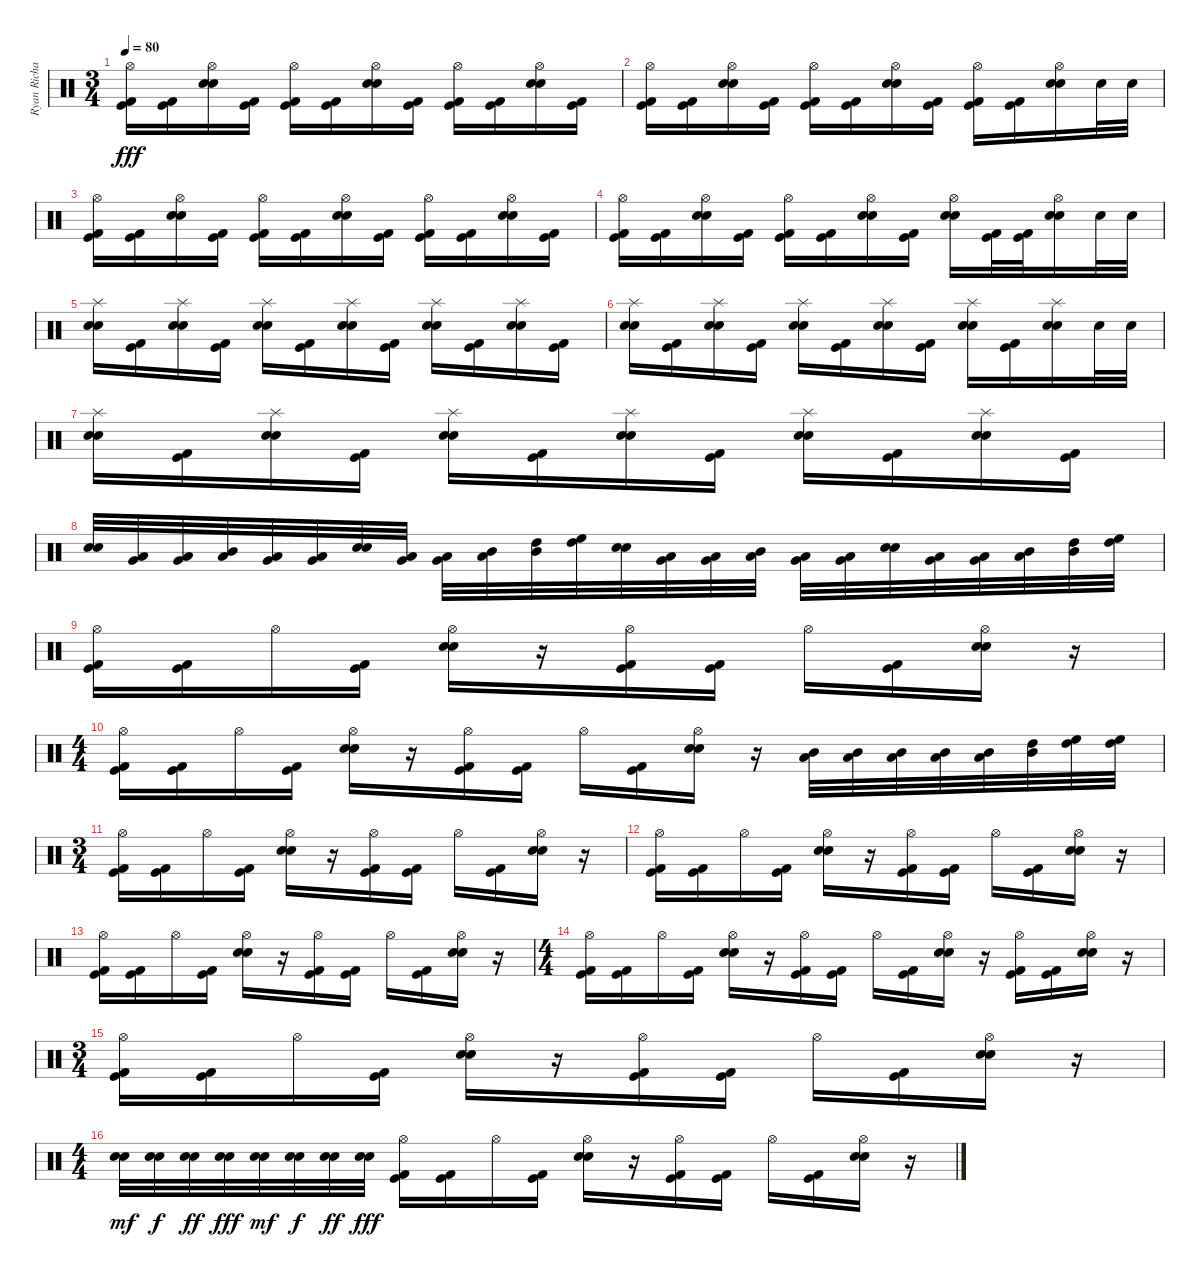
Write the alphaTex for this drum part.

\track ("Ryan Richards" "Ryan Richa") {instrument percussion}
\staff {score}
\articulation defaults
\ts (3 4)
\tempo 80
\clef neutral
\ks c
("Kick (hit)" "Hi-Hat (open)" "Kick (hit) 2").16{dy fff} ("Kick (hit)" "Kick (hit) 2").16 ("Hi-Hat (open)" "Snare (hit) 2" "Electric Snare (hit)").16 ("Kick (hit)" "Kick (hit) 2").16 ("Kick (hit)" "Hi-Hat (open)" "Kick (hit) 2").16 ("Kick (hit)" "Kick (hit) 2").16 ("Hi-Hat (open)" "Snare (hit) 2" "Electric Snare (hit)").16 ("Kick (hit)" "Kick (hit) 2").16 ("Kick (hit)" "Hi-Hat (open)" "Kick (hit) 2").16 ("Kick (hit)" "Kick (hit) 2").16 ("Hi-Hat (open)" "Snare (hit) 2" "Electric Snare (hit)").16 ("Kick (hit)" "Kick (hit) 2").16 |
("Kick (hit)" "Hi-Hat (open)" "Kick (hit) 2").16 ("Kick (hit)" "Kick (hit) 2").16 ("Hi-Hat (open)" "Snare (hit) 2" "Electric Snare (hit)").16 ("Kick (hit)" "Kick (hit) 2").16 ("Kick (hit)" "Hi-Hat (open)" "Kick (hit) 2").16 ("Kick (hit)" "Kick (hit) 2").16 ("Hi-Hat (open)" "Snare (hit) 2" "Electric Snare (hit)").16 ("Kick (hit)" "Kick (hit) 2").16 ("Kick (hit)" "Hi-Hat (open)" "Kick (hit) 2").16 ("Kick (hit)" "Kick (hit) 2").16 ("Hi-Hat (open)" "Snare (hit) 2" "Electric Snare (hit)").16 "Electric Snare (hit)".32 "Electric Snare (hit)".32 |
("Kick (hit)" "Hi-Hat (open)" "Kick (hit) 2").16 ("Kick (hit)" "Kick (hit) 2").16 ("Hi-Hat (open)" "Snare (hit) 2" "Electric Snare (hit)").16 ("Kick (hit)" "Kick (hit) 2").16 ("Kick (hit)" "Hi-Hat (open)" "Kick (hit) 2").16 ("Kick (hit)" "Kick (hit) 2").16 ("Hi-Hat (open)" "Snare (hit) 2" "Electric Snare (hit)").16 ("Kick (hit)" "Kick (hit) 2").16 ("Kick (hit)" "Hi-Hat (open)" "Kick (hit) 2").16 ("Kick (hit)" "Kick (hit) 2").16 ("Hi-Hat (open)" "Snare (hit) 2" "Electric Snare (hit)").16 ("Kick (hit)" "Kick (hit) 2").16 |
("Kick (hit)" "Hi-Hat (open)" "Kick (hit) 2").16 ("Kick (hit)" "Kick (hit) 2").16 ("Hi-Hat (open)" "Snare (hit) 2" "Electric Snare (hit)").16 ("Kick (hit)" "Kick (hit) 2").16 ("Kick (hit)" "Hi-Hat (open)" "Kick (hit) 2").16 ("Kick (hit)" "Kick (hit) 2").16 ("Hi-Hat (open)" "Snare (hit) 2" "Electric Snare (hit)").16 ("Kick (hit)" "Kick (hit) 2").16 ("Hi-Hat (open)" "Snare (hit) 2" "Electric Snare (hit)").16 ("Kick (hit)" "Kick (hit) 2").32 ("Kick (hit)" "Kick (hit) 2").32 ("Hi-Hat (open)" "Snare (hit) 2" "Electric Snare (hit)").16 "Electric Snare (hit)".32 "Electric Snare (hit)".32 |
("Splash (hit)" "Snare (hit) 2" "Electric Snare (hit)").16 ("Kick (hit)" "Kick (hit) 2").16 ("Splash (hit)" "Snare (hit) 2" "Electric Snare (hit)").16 ("Kick (hit)" "Kick (hit) 2").16 ("Splash (hit)" "Snare (hit) 2" "Electric Snare (hit)").16 ("Kick (hit)" "Kick (hit) 2").16 ("Splash (hit)" "Snare (hit) 2" "Electric Snare (hit)").16 ("Kick (hit)" "Kick (hit) 2").16 ("Splash (hit)" "Snare (hit) 2" "Electric Snare (hit)").16 ("Kick (hit)" "Kick (hit) 2").16 ("Splash (hit)" "Snare (hit) 2" "Electric Snare (hit)").16 ("Kick (hit)" "Kick (hit) 2").16 |
("Splash (hit)" "Snare (hit) 2" "Electric Snare (hit)").16 ("Kick (hit)" "Kick (hit) 2").16 ("Splash (hit)" "Snare (hit) 2" "Electric Snare (hit)").16 ("Kick (hit)" "Kick (hit) 2").16 ("Splash (hit)" "Snare (hit) 2" "Electric Snare (hit)").16 ("Kick (hit)" "Kick (hit) 2").16 ("Splash (hit)" "Snare (hit) 2" "Electric Snare (hit)").16 ("Kick (hit)" "Kick (hit) 2").16 ("Splash (hit)" "Snare (hit) 2" "Electric Snare (hit)").16 ("Kick (hit)" "Kick (hit) 2").16 ("Splash (hit)" "Snare (hit) 2" "Electric Snare (hit)").16 "Electric Snare (hit)".32 "Electric Snare (hit)".32 |
("Splash (hit)" "Snare (hit) 2" "Electric Snare (hit)").16 ("Kick (hit)" "Kick (hit) 2").16 ("Splash (hit)" "Snare (hit) 2" "Electric Snare (hit)").16 ("Kick (hit)" "Kick (hit) 2").16 ("Splash (hit)" "Snare (hit) 2" "Electric Snare (hit)").16 ("Kick (hit)" "Kick (hit) 2").16 ("Splash (hit)" "Snare (hit) 2" "Electric Snare (hit)").16 ("Kick (hit)" "Kick (hit) 2").16 ("Splash (hit)" "Snare (hit) 2" "Electric Snare (hit)").16 ("Kick (hit)" "Kick (hit) 2").16 ("Splash (hit)" "Snare (hit) 2" "Electric Snare (hit)").16 ("Kick (hit)" "Kick (hit) 2").16 |
("Snare (hit) 2" "Electric Snare (hit)").32 ("Very Low Tom (hit)" "Low Floor Tom (hit)").32 ("Low Tom (hit)" "Very Low Tom (hit)").32 ("Mid Tom (hit)" "Low Tom (hit)").32 ("Low Tom (hit)" "Very Low Tom (hit)").32 ("Very Low Tom (hit)" "Low Floor Tom (hit)").32 ("Snare (hit) 2" "Electric Snare (hit)").32 ("Very Low Tom (hit)" "Low Floor Tom (hit)").32 ("Low Tom (hit)" "Very Low Tom (hit)").32 ("Mid Tom (hit)" "Low Tom (hit)").32 ("High Tom (hit)" "Mid Tom (hit)").32 ("High Floor Tom (hit)" "High Tom (hit)").32 ("Snare (hit) 2" "Electric Snare (hit)").32 ("Very Low Tom (hit)" "Low Floor Tom (hit)").32 ("Low Tom (hit)" "Very Low Tom (hit)").32 ("Mid Tom (hit)" "Low Tom (hit)").32 ("Low Tom (hit)" "Very Low Tom (hit)").32 ("Very Low Tom (hit)" "Low Floor Tom (hit)").32 ("Snare (hit) 2" "Electric Snare (hit)").32 ("Very Low Tom (hit)" "Low Floor Tom (hit)").32 ("Low Tom (hit)" "Very Low Tom (hit)").32 ("Mid Tom (hit)" "Low Tom (hit)").32 ("High Tom (hit)" "Mid Tom (hit)").32 ("High Floor Tom (hit)" "High Tom (hit)").32 |
("Kick (hit)" "Hi-Hat (open)" "Kick (hit) 2").16 ("Kick (hit)" "Kick (hit) 2").16 "Hi-Hat (open)".16 ("Kick (hit)" "Kick (hit) 2").16 ("Hi-Hat (open)" "Snare (hit) 2" "Electric Snare (hit)").16 r.16 ("Kick (hit)" "Hi-Hat (open)" "Kick (hit) 2").16 ("Kick (hit)" "Kick (hit) 2").16 "Hi-Hat (open)".16 ("Kick (hit)" "Kick (hit) 2").16 ("Hi-Hat (open)" "Snare (hit) 2" "Electric Snare (hit)").16 r.16 |
\ts (4 4)
("Kick (hit)" "Hi-Hat (open)" "Kick (hit) 2").16 ("Kick (hit)" "Kick (hit) 2").16 "Hi-Hat (open)".16 ("Kick (hit)" "Kick (hit) 2").16 ("Hi-Hat (open)" "Snare (hit) 2" "Electric Snare (hit)").16 r.16 ("Kick (hit)" "Hi-Hat (open)" "Kick (hit) 2").16 ("Kick (hit)" "Kick (hit) 2").16 "Hi-Hat (open)".16 ("Kick (hit)" "Kick (hit) 2").16 ("Hi-Hat (open)" "Snare (hit) 2" "Electric Snare (hit)").16 r.16 ("Mid Tom (hit)" "Low Tom (hit)").32 ("Mid Tom (hit)" "Low Tom (hit)").32 ("Mid Tom (hit)" "Low Tom (hit)").32 ("Mid Tom (hit)" "Low Tom (hit)").32 ("Mid Tom (hit)" "Low Tom (hit)").32 ("High Tom (hit)" "Mid Tom (hit)").32 ("High Floor Tom (hit)" "High Tom (hit)").32 ("High Floor Tom (hit)" "High Tom (hit)").32 |
\ts (3 4)
("Kick (hit)" "Hi-Hat (open)" "Kick (hit) 2").16 ("Kick (hit)" "Kick (hit) 2").16 "Hi-Hat (open)".16 ("Kick (hit)" "Kick (hit) 2").16 ("Hi-Hat (open)" "Snare (hit) 2" "Electric Snare (hit)").16 r.16 ("Kick (hit)" "Hi-Hat (open)" "Kick (hit) 2").16 ("Kick (hit)" "Kick (hit) 2").16 "Hi-Hat (open)".16 ("Kick (hit)" "Kick (hit) 2").16 ("Hi-Hat (open)" "Snare (hit) 2" "Electric Snare (hit)").16 r.16 |
("Kick (hit)" "Hi-Hat (open)" "Kick (hit) 2").16 ("Kick (hit)" "Kick (hit) 2").16 "Hi-Hat (open)".16 ("Kick (hit)" "Kick (hit) 2").16 ("Hi-Hat (open)" "Snare (hit) 2" "Electric Snare (hit)").16 r.16 ("Kick (hit)" "Hi-Hat (open)" "Kick (hit) 2").16 ("Kick (hit)" "Kick (hit) 2").16 "Hi-Hat (open)".16 ("Kick (hit)" "Kick (hit) 2").16 ("Hi-Hat (open)" "Snare (hit) 2" "Electric Snare (hit)").16 r.16 |
("Kick (hit)" "Hi-Hat (open)" "Kick (hit) 2").16 ("Kick (hit)" "Kick (hit) 2").16 "Hi-Hat (open)".16 ("Kick (hit)" "Kick (hit) 2").16 ("Hi-Hat (open)" "Snare (hit) 2" "Electric Snare (hit)").16 r.16 ("Kick (hit)" "Hi-Hat (open)" "Kick (hit) 2").16 ("Kick (hit)" "Kick (hit) 2").16 "Hi-Hat (open)".16 ("Kick (hit)" "Kick (hit) 2").16 ("Hi-Hat (open)" "Snare (hit) 2" "Electric Snare (hit)").16 r.16 |
\ts (4 4)
("Kick (hit)" "Hi-Hat (open)" "Kick (hit) 2").16 ("Kick (hit)" "Kick (hit) 2").16 "Hi-Hat (open)".16 ("Kick (hit)" "Kick (hit) 2").16 ("Hi-Hat (open)" "Snare (hit) 2" "Electric Snare (hit)").16 r.16 ("Kick (hit)" "Hi-Hat (open)" "Kick (hit) 2").16 ("Kick (hit)" "Kick (hit) 2").16 "Hi-Hat (open)".16 ("Kick (hit)" "Kick (hit) 2").16 ("Hi-Hat (open)" "Snare (hit) 2" "Electric Snare (hit)").16 r.16 ("Kick (hit)" "Hi-Hat (open)" "Kick (hit) 2").16 ("Kick (hit)" "Kick (hit) 2").16 ("Hi-Hat (open)" "Snare (hit) 2" "Electric Snare (hit)").16 r.16 |
\ts (3 4)
("Kick (hit)" "Hi-Hat (open)" "Kick (hit) 2").16 ("Kick (hit)" "Kick (hit) 2").16 "Hi-Hat (open)".16 ("Kick (hit)" "Kick (hit) 2").16 ("Hi-Hat (open)" "Snare (hit) 2" "Electric Snare (hit)").16 r.16 ("Kick (hit)" "Hi-Hat (open)" "Kick (hit) 2").16 ("Kick (hit)" "Kick (hit) 2").16 "Hi-Hat (open)".16 ("Kick (hit)" "Kick (hit) 2").16 ("Hi-Hat (open)" "Snare (hit) 2" "Electric Snare (hit)").16 r.16 |
\ts (4 4)
("Snare (hit) 2" "Electric Snare (hit)").32{dy mf} ("Snare (hit) 2" "Electric Snare (hit)").32{dy f} ("Snare (hit) 2" "Electric Snare (hit)").32{dy ff} ("Snare (hit) 2" "Electric Snare (hit)").32{dy fff} ("Snare (hit) 2" "Electric Snare (hit)").32{dy mf} ("Snare (hit) 2" "Electric Snare (hit)").32{dy f} ("Snare (hit) 2" "Electric Snare (hit)").32{dy ff} ("Snare (hit) 2" "Electric Snare (hit)").32{dy fff} ("Kick (hit)" "Hi-Hat (open)" "Kick (hit) 2").16 ("Kick (hit)" "Kick (hit) 2").16 "Hi-Hat (open)".16 ("Kick (hit)" "Kick (hit) 2").16 ("Hi-Hat (open)" "Snare (hit) 2" "Electric Snare (hit)").16 r.16 ("Kick (hit)" "Hi-Hat (open)" "Kick (hit) 2").16 ("Kick (hit)" "Kick (hit) 2").16 "Hi-Hat (open)".16 ("Kick (hit)" "Kick (hit) 2").16 ("Hi-Hat (open)" "Snare (hit) 2" "Electric Snare (hit)").16 r.16
